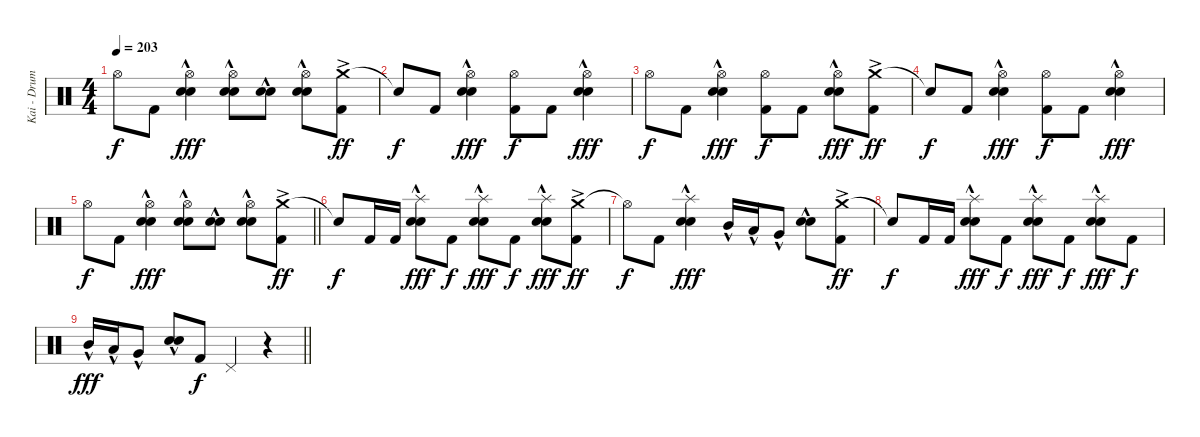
\track ("Kai - Drums" "Kai - Drum") {instrument percussion}
\staff {score}
\articulation defaults
\ts (4 4)
\tempo 203
\clef neutral
\ks c "Hi-Hat (open)".8{dy f} "Kick (hit) 2".8
("Hi-Hat (open)" "Electric Snare (hit)"{hac} "Snare (hit) 2"{hac}).4{dy fff} ("Hi-Hat (open)" "Electric Snare (hit)"{hac} "Snare (hit) 2"{hac}).8 ("Electric Snare (hit)"{hac} "Snare (hit) 2"{hac}).8 ("Hi-Hat (open)" "Electric Snare (hit)"{hac} "Snare (hit) 2"{hac}).8 ("Crash medium (hit)"{ac} "Kick (hit) 2").8{dy ff} |
"Snare (hit)"{t}.8{dy f} "Kick (hit) 2".8 ("Hi-Hat (open)" "Electric Snare (hit)"{hac} "Snare (hit) 2"{hac}).4{dy fff} ("Hi-Hat (open)" "Kick (hit) 2").8{dy f} "Kick (hit) 2".8 ("Hi-Hat (open)" "Electric Snare (hit)"{hac} "Snare (hit) 2"{hac}).4{dy fff} |
"Hi-Hat (open)".8{dy f} "Kick (hit) 2".8 ("Hi-Hat (open)" "Electric Snare (hit)"{hac} "Snare (hit) 2"{hac}).4{dy fff} ("Hi-Hat (open)" "Kick (hit) 2").8{dy f} "Kick (hit) 2".8 ("Hi-Hat (open)" "Electric Snare (hit)"{hac} "Snare (hit) 2"{hac}).8{dy fff} ("Crash medium (hit)"{ac} "Kick (hit) 2").8{dy ff} |
"Snare (hit)"{t}.8{dy f} "Kick (hit) 2".8 ("Hi-Hat (open)" "Electric Snare (hit)"{hac} "Snare (hit) 2"{hac}).4{dy fff} ("Hi-Hat (open)" "Kick (hit) 2").8{dy f} "Kick (hit) 2".8 ("Hi-Hat (open)" "Electric Snare (hit)"{hac} "Snare (hit) 2"{hac}).4{dy fff} |
\barLineRight lightlight "Hi-Hat (open)".8{dy f} "Kick (hit) 2".8
("Hi-Hat (open)" "Electric Snare (hit)"{hac} "Snare (hit) 2"{hac}).4{dy fff} ("Hi-Hat (open)" "Electric Snare (hit)"{hac} "Snare (hit) 2"{hac}).8 ("Electric Snare (hit)"{hac} "Snare (hit) 2"{hac}).8 ("Hi-Hat (open)" "Electric Snare (hit)"{hac} "Snare (hit) 2"{hac}).8 ("Crash medium (hit)"{ac} "Kick (hit) 2").8{dy ff} |
\section ("" "")
"Snare (hit)"{t}.8{dy f} "Kick (hit) 2".16 "Kick (hit) 2".16 ("Splash (hit)"{hac} "Electric Snare (hit)"{hac} "Snare (hit) 2"{hac}).8{dy fff} "Kick (hit) 2".8{dy f} ("Splash (hit)"{hac} "Electric Snare (hit)"{hac} "Snare (hit) 2"{hac}).8{dy fff} "Kick (hit) 2".8{dy f} ("Splash (hit)"{hac} "Electric Snare (hit)"{hac} "Snare (hit) 2"{hac}).8{dy fff} ("Crash medium (hit)"{ac} "Kick (hit) 2").8{dy ff} |
"Hi-Hat (open)"{t}.8{dy f} "Kick (hit) 2".8 ("Splash (hit)"{hac} "Electric Snare (hit)"{hac} "Snare (hit) 2"{hac}).4{dy fff} "Mid Tom (hit)"{hac}.16 "Low Tom (hit)"{hac}.16 "Very Low Tom (hit)"{hac}.8 ("Electric Snare (hit)"{hac} "Snare (hit) 2"{hac}).8 ("Crash medium (hit)"{ac} "Kick (hit) 2").8{dy ff} |
"Snare (hit)"{t}.8{dy f} "Kick (hit) 2".16 "Kick (hit) 2".16 ("Splash (hit)"{hac} "Electric Snare (hit)"{hac} "Snare (hit) 2"{hac}).8{dy fff} "Kick (hit) 2".8{dy f} ("Splash (hit)"{hac} "Electric Snare (hit)"{hac} "Snare (hit) 2"{hac}).8{dy fff} "Kick (hit) 2".8{dy f} ("Splash (hit)"{hac} "Electric Snare (hit)"{hac} "Snare (hit) 2"{hac}).8{dy fff} "Kick (hit) 2".8{dy f} |
\barLineRight lightlight "Mid Tom (hit)"{hac}.16{dy fff} "Low Tom (hit)"{hac}.16 "Very Low Tom (hit)"{hac}.8
("Electric Snare (hit)"{hac} "Snare (hit) 2"{hac}).8 "Kick (hit) 2".8{dy f} "Pedal Hi-Hat (hit)".4 r.4
